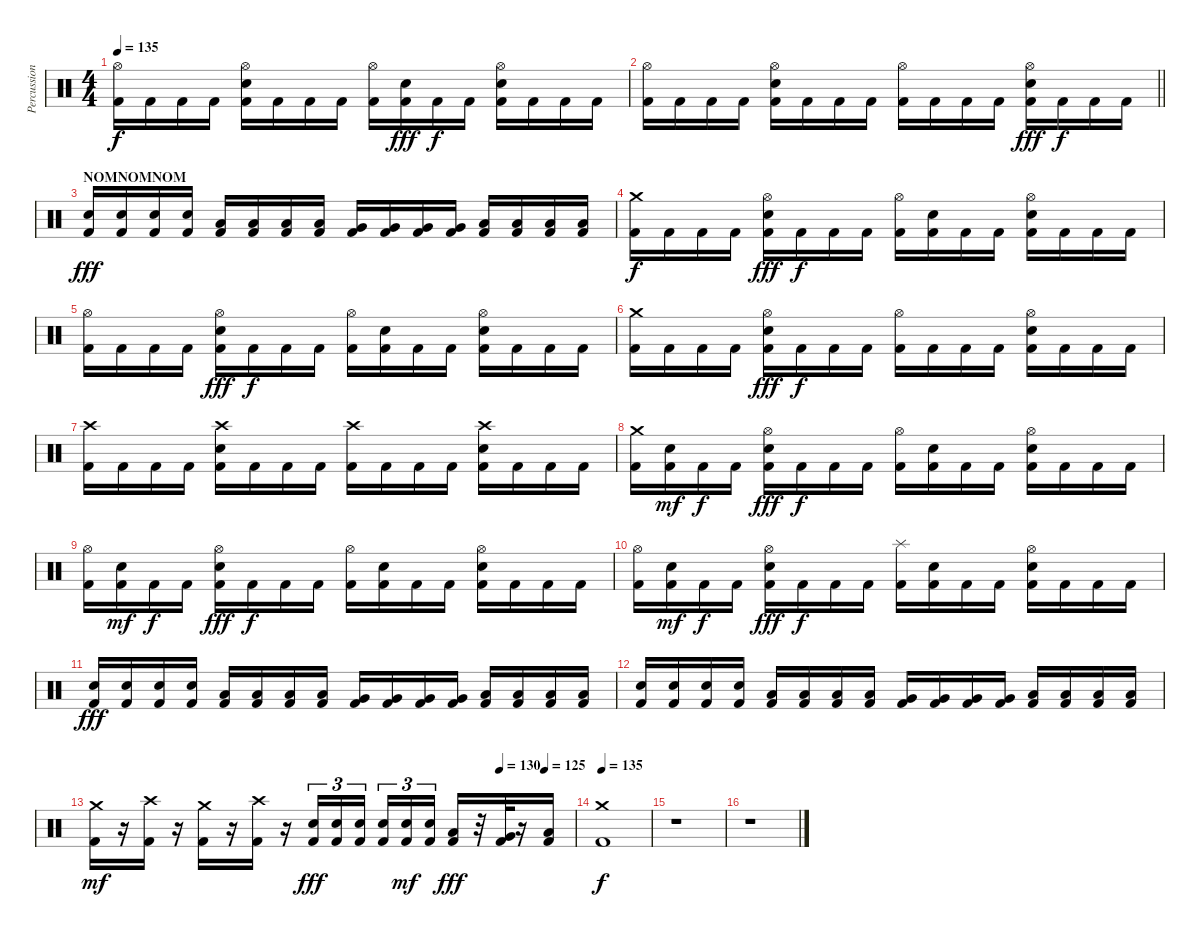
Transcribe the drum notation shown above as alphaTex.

\track ("Percussion" "Percussion") {instrument percussion}
\staff {score}
\articulation defaults
\ts (4 4)
\tempo 135
\clef neutral
\ks c
("Hi-Hat (open)" "Kick (hit) 2").16{dy f} "Kick (hit) 2".16 "Kick (hit) 2".16 "Kick (hit) 2".16 ("Hi-Hat (open)" "Electric Snare (hit)" "Kick (hit) 2").16 "Kick (hit) 2".16 "Kick (hit) 2".16 "Kick (hit) 2".16 ("Hi-Hat (open)" "Kick (hit) 2").16 ("Electric Snare (hit)" "Kick (hit) 2").16{dy fff} "Kick (hit) 2".16{dy f} "Kick (hit) 2".16 ("Hi-Hat (open)" "Electric Snare (hit)" "Kick (hit) 2").16 "Kick (hit) 2".16 "Kick (hit) 2".16 "Kick (hit) 2".16 |
\barLineRight lightlight
("Hi-Hat (open)" "Kick (hit) 2").16 "Kick (hit) 2".16 "Kick (hit) 2".16 "Kick (hit) 2".16 ("Hi-Hat (open)" "Electric Snare (hit)" "Kick (hit) 2").16 "Kick (hit) 2".16 "Kick (hit) 2".16 "Kick (hit) 2".16 ("Hi-Hat (open)" "Kick (hit) 2").16 "Kick (hit) 2".16 "Kick (hit) 2".16 "Kick (hit) 2".16 ("Hi-Hat (open)" "Electric Snare (hit)" "Kick (hit) 2").16{dy fff} "Kick (hit) 2".16{dy f} "Kick (hit) 2".16 "Kick (hit) 2".16 |
\section ("" "NOMNOMNOM")
("Electric Snare (hit)" "Kick (hit) 2").16{dy fff} ("Electric Snare (hit)" "Kick (hit) 2").16 ("Electric Snare (hit)" "Kick (hit) 2").16 ("Electric Snare (hit)" "Kick (hit) 2").16 ("Low Tom (hit)" "Kick (hit) 2").16 ("Low Tom (hit)" "Kick (hit) 2").16 ("Low Tom (hit)" "Kick (hit) 2").16 ("Low Tom (hit)" "Kick (hit) 2").16 ("Very Low Tom (hit)" "Kick (hit) 2").16 ("Very Low Tom (hit)" "Kick (hit) 2").16 ("Very Low Tom (hit)" "Kick (hit) 2").16 ("Very Low Tom (hit)" "Kick (hit) 2").16 ("Low Floor Tom (hit)" "Kick (hit) 2").16 ("Low Floor Tom (hit)" "Kick (hit) 2").16 ("Low Floor Tom (hit)" "Kick (hit) 2").16 ("Low Floor Tom (hit)" "Kick (hit) 2").16 |
("Crash medium (hit)" "Kick (hit) 2").16{dy f} "Kick (hit) 2".16 "Kick (hit) 2".16 "Kick (hit) 2".16 ("Hi-Hat (open)" "Electric Snare (hit)" "Kick (hit) 2").16{dy fff} "Kick (hit) 2".16{dy f} "Kick (hit) 2".16 "Kick (hit) 2".16 ("Hi-Hat (open)" "Kick (hit) 2").16 ("Electric Snare (hit)" "Kick (hit) 2").16 "Kick (hit) 2".16 "Kick (hit) 2".16 ("Hi-Hat (open)" "Electric Snare (hit)" "Kick (hit) 2").16 "Kick (hit) 2".16 "Kick (hit) 2".16 "Kick (hit) 2".16 |
("Hi-Hat (open)" "Kick (hit) 2").16 "Kick (hit) 2".16 "Kick (hit) 2".16 "Kick (hit) 2".16 ("Hi-Hat (open)" "Electric Snare (hit)" "Kick (hit) 2").16{dy fff} "Kick (hit) 2".16{dy f} "Kick (hit) 2".16 "Kick (hit) 2".16 ("Hi-Hat (open)" "Kick (hit) 2").16 ("Electric Snare (hit)" "Kick (hit) 2").16 "Kick (hit) 2".16 "Kick (hit) 2".16 ("Hi-Hat (open)" "Electric Snare (hit)" "Kick (hit) 2").16 "Kick (hit) 2".16 "Kick (hit) 2".16 "Kick (hit) 2".16 |
("Crash medium (hit)" "Kick (hit) 2").16 "Kick (hit) 2".16 "Kick (hit) 2".16 "Kick (hit) 2".16 ("Hi-Hat (open)" "Electric Snare (hit)" "Kick (hit) 2").16{dy fff} "Kick (hit) 2".16{dy f} "Kick (hit) 2".16 "Kick (hit) 2".16 ("Hi-Hat (open)" "Kick (hit) 2").16 "Kick (hit) 2".16 "Kick (hit) 2".16 "Kick (hit) 2".16 ("Hi-Hat (open)" "Electric Snare (hit)" "Kick (hit) 2").16 "Kick (hit) 2".16 "Kick (hit) 2".16 "Kick (hit) 2".16 |
("Crash high (hit)" "Kick (hit) 2").16 "Kick (hit) 2".16 "Kick (hit) 2".16 "Kick (hit) 2".16 ("Crash high (hit)" "Electric Snare (hit)" "Kick (hit) 2").16 "Kick (hit) 2".16 "Kick (hit) 2".16 "Kick (hit) 2".16 ("Crash high (hit)" "Kick (hit) 2").16 "Kick (hit) 2".16 "Kick (hit) 2".16 "Kick (hit) 2".16 ("Crash high (hit)" "Electric Snare (hit)" "Kick (hit) 2").16 "Kick (hit) 2".16 "Kick (hit) 2".16 "Kick (hit) 2".16 |
("Crash medium (hit)" "Kick (hit) 2").16 ("Electric Snare (hit)" "Kick (hit) 2").16{dy mf} "Kick (hit) 2".16{dy f} "Kick (hit) 2".16 ("Hi-Hat (open)" "Electric Snare (hit)" "Kick (hit) 2").16{dy fff} "Kick (hit) 2".16{dy f} "Kick (hit) 2".16 "Kick (hit) 2".16 ("Hi-Hat (open)" "Kick (hit) 2").16 ("Electric Snare (hit)" "Kick (hit) 2").16 "Kick (hit) 2".16 "Kick (hit) 2".16 ("Hi-Hat (open)" "Electric Snare (hit)" "Kick (hit) 2").16 "Kick (hit) 2".16 "Kick (hit) 2".16 "Kick (hit) 2".16 |
("Hi-Hat (open)" "Kick (hit) 2").16 ("Electric Snare (hit)" "Kick (hit) 2").16{dy mf} "Kick (hit) 2".16{dy f} "Kick (hit) 2".16 ("Hi-Hat (open)" "Electric Snare (hit)" "Kick (hit) 2").16{dy fff} "Kick (hit) 2".16{dy f} "Kick (hit) 2".16 "Kick (hit) 2".16 ("Hi-Hat (open)" "Kick (hit) 2").16 ("Electric Snare (hit)" "Kick (hit) 2").16 "Kick (hit) 2".16 "Kick (hit) 2".16 ("Hi-Hat (open)" "Electric Snare (hit)" "Kick (hit) 2").16 "Kick (hit) 2".16 "Kick (hit) 2".16 "Kick (hit) 2".16 |
("Hi-Hat (open)" "Kick (hit) 2").16 ("Electric Snare (hit)" "Kick (hit) 2").16{dy mf} "Kick (hit) 2".16{dy f} "Kick (hit) 2".16 ("Hi-Hat (open)" "Electric Snare (hit)" "Kick (hit) 2").16{dy fff} "Kick (hit) 2".16{dy f} "Kick (hit) 2".16 "Kick (hit) 2".16 ("Splash (hit)" "Kick (hit) 2").16 ("Electric Snare (hit)" "Kick (hit) 2").16 "Kick (hit) 2".16 "Kick (hit) 2".16 ("Hi-Hat (open)" "Electric Snare (hit)" "Kick (hit) 2").16 "Kick (hit) 2".16 "Kick (hit) 2".16 "Kick (hit) 2".16 |
("Electric Snare (hit)" "Kick (hit) 2").16{dy fff} ("Electric Snare (hit)" "Kick (hit) 2").16 ("Electric Snare (hit)" "Kick (hit) 2").16 ("Electric Snare (hit)" "Kick (hit) 2").16 ("Low Tom (hit)" "Kick (hit) 2").16 ("Low Tom (hit)" "Kick (hit) 2").16 ("Low Tom (hit)" "Kick (hit) 2").16 ("Low Tom (hit)" "Kick (hit) 2").16 ("Very Low Tom (hit)" "Kick (hit) 2").16 ("Very Low Tom (hit)" "Kick (hit) 2").16 ("Very Low Tom (hit)" "Kick (hit) 2").16 ("Very Low Tom (hit)" "Kick (hit) 2").16 ("Low Floor Tom (hit)" "Kick (hit) 2").16 ("Low Floor Tom (hit)" "Kick (hit) 2").16 ("Low Floor Tom (hit)" "Kick (hit) 2").16 ("Low Floor Tom (hit)" "Kick (hit) 2").16 |
("Electric Snare (hit)" "Kick (hit) 2").16 ("Electric Snare (hit)" "Kick (hit) 2").16 ("Electric Snare (hit)" "Kick (hit) 2").16 ("Electric Snare (hit)" "Kick (hit) 2").16 ("Low Tom (hit)" "Kick (hit) 2").16 ("Low Tom (hit)" "Kick (hit) 2").16 ("Low Tom (hit)" "Kick (hit) 2").16 ("Low Tom (hit)" "Kick (hit) 2").16 ("Very Low Tom (hit)" "Kick (hit) 2").16 ("Very Low Tom (hit)" "Kick (hit) 2").16 ("Very Low Tom (hit)" "Kick (hit) 2").16 ("Very Low Tom (hit)" "Kick (hit) 2").16 ("Low Floor Tom (hit)" "Kick (hit) 2").16 ("Low Floor Tom (hit)" "Kick (hit) 2").16 ("Low Floor Tom (hit)" "Kick (hit) 2").16 ("Low Floor Tom (hit)" "Kick (hit) 2").16 |
\tempo (130 0.84375)
\tempo (125 0.9375)
("Crash medium (hit)" "Kick (hit) 2").16{dy mf} r.16 ("Crash high (hit)" "Kick (hit) 2").16 r.16 ("Crash medium (hit)" "Kick (hit) 2").16 r.16 ("Crash high (hit)" "Kick (hit) 2").16 r.16 ("Electric Snare (hit)" "Kick (hit) 2").16{tu (3 2) dy fff} ("Electric Snare (hit)" "Kick (hit) 2").16{tu (3 2)} ("Electric Snare (hit)" "Kick (hit) 2").16{tu (3 2)} ("Electric Snare (hit)" "Kick (hit) 2").16{tu (3 2)} ("Electric Snare (hit)" "Kick (hit) 2").16{tu (3 2) dy mf} ("Electric Snare (hit)" "Kick (hit) 2").16{tu (3 2)} ("Low Tom (hit)" "Kick (hit) 2").16{dy fff} r.32 ("Very Low Tom (hit)" "Kick (hit) 2").32 r.16 ("Low Floor Tom (hit)" "Kick (hit) 2").16 |
\tempo 135
("Crash medium (hit)" "Kick (hit) 2").1{dy f} |
r.1 |
r.1
